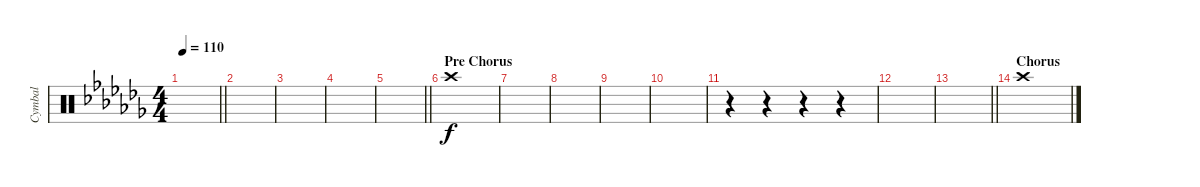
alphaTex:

\track ("Cymbal" "Cymbal") {instrument percussion}
\staff {score}
\articulation defaults
\ts (4 4)
\tempo 110
\clef neutral
\barLineRight lightlight
\ks abminor
|
|
|
|
\barLineRight lightlight
|
\section ("" "Pre Chorus")
"Crash high (hit)".1 |
|
|
|
|
r.4 r.4 r.4 r.4 |
|
\barLineRight lightlight
|
\section ("" "Chorus")
"Crash high (hit)".1
